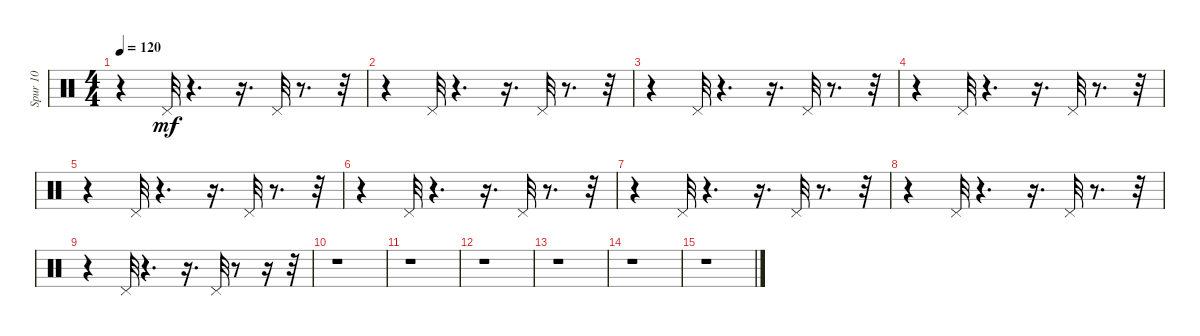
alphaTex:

\track ("Spur 10" "Spur 10") {instrument percussion}
\staff {score}
\articulation defaults
\ts (4 4)
\tempo 120
\clef neutral
\ks c
r.4{dy mf} "Pedal Hi-Hat (hit)".32 r.4{d} r.16{d} "Pedal Hi-Hat (hit)".32 r.8{d} r.32 |
r.4 "Pedal Hi-Hat (hit)".32 r.4{d} r.16{d} "Pedal Hi-Hat (hit)".32 r.8{d} r.32 |
r.4 "Pedal Hi-Hat (hit)".32 r.4{d} r.16{d} "Pedal Hi-Hat (hit)".32 r.8{d} r.32 |
r.4 "Pedal Hi-Hat (hit)".32 r.4{d} r.16{d} "Pedal Hi-Hat (hit)".32 r.8{d} r.32 |
r.4 "Pedal Hi-Hat (hit)".32 r.4{d} r.16{d} "Pedal Hi-Hat (hit)".32 r.8{d} r.32 |
r.4 "Pedal Hi-Hat (hit)".32 r.4{d} r.16{d} "Pedal Hi-Hat (hit)".32 r.8{d} r.32 |
r.4 "Pedal Hi-Hat (hit)".32 r.4{d} r.16{d} "Pedal Hi-Hat (hit)".32 r.8{d} r.32 |
r.4 "Pedal Hi-Hat (hit)".32 r.4{d} r.16{d} "Pedal Hi-Hat (hit)".32 r.8{d} r.32 |
r.4 "Pedal Hi-Hat (hit)".32 r.4{d} r.16{d} "Pedal Hi-Hat (hit)".32 r.8 r.16 r.32 |
r.1 |
r.1 |
r.1 |
r.1 |
r.1 |
r.1
